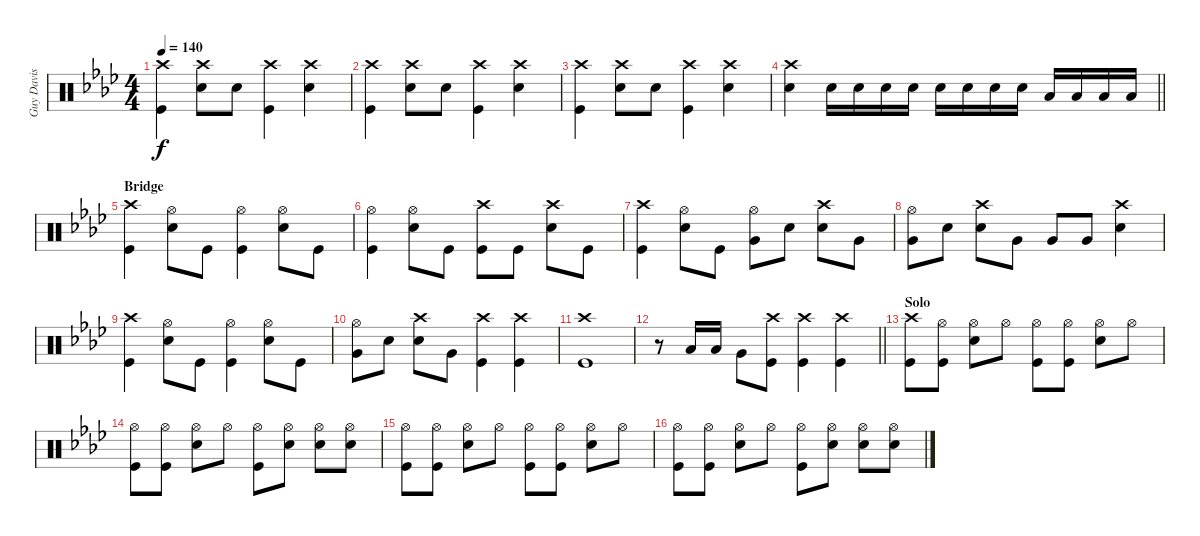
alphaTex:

\track ("Guy Davis" "Guy Davis") {instrument percussion}
\staff {score}
\articulation defaults
\ts (4 4)
\tempo 140
\clef neutral
\ks fminor
("Crash high (hit)" "Kick (hit)").4{dy f} ("Crash high (hit)" "Snare (hit) 2").8 "Snare (hit) 2".8 ("Crash high (hit)" "Kick (hit)").4 ("Crash high (hit)" "Snare (hit) 2").4 |
("Crash high (hit)" "Kick (hit)").4 ("Crash high (hit)" "Snare (hit) 2").8 "Snare (hit) 2".8 ("Crash high (hit)" "Kick (hit)").4 ("Crash high (hit)" "Snare (hit) 2").4 |
("Crash high (hit)" "Kick (hit)").4 ("Crash high (hit)" "Snare (hit) 2").8 "Snare (hit) 2".8 ("Crash high (hit)" "Kick (hit)").4 ("Crash high (hit)" "Snare (hit) 2").4 |
\barLineRight lightlight
("Crash high (hit)" "Snare (hit) 2").4 "Snare (hit) 2".16 "Snare (hit) 2".16 "Snare (hit) 2".16 "Snare (hit) 2".16 "Snare (hit) 2".16 "Snare (hit) 2".16 "Snare (hit) 2".16 "Snare (hit) 2".16 "Low Tom (hit)".16 "Low Tom (hit)".16 "Low Tom (hit)".16 "Low Tom (hit)".16 |
\section ("" "Bridge")
("Crash high (hit)" "Kick (hit)").4 ("Hi-Hat (open)" "Snare (hit) 2").8 "Kick (hit)".8 ("Hi-Hat (open)" "Kick (hit)").4 ("Hi-Hat (open)" "Snare (hit) 2").8 "Kick (hit)".8 |
("Hi-Hat (open)" "Kick (hit)").4 ("Hi-Hat (open)" "Snare (hit) 2").8 "Kick (hit)".8 ("Crash high (hit)" "Kick (hit)").8 "Kick (hit)".8 ("Crash high (hit)" "Snare (hit) 2").8 "Kick (hit)".8 |
("Crash high (hit)" "Kick (hit)").4 ("Hi-Hat (open)" "Snare (hit) 2").8 "Kick (hit)".8 ("Hi-Hat (open)" "Very Low Tom (hit)").8 "Snare (hit) 2".8 ("Crash high (hit)" "Snare (hit) 2").8 "Very Low Tom (hit)".8 |
("Hi-Hat (open)" "Very Low Tom (hit)").8 "Snare (hit) 2".8 ("Crash high (hit)" "Snare (hit) 2").8 "Very Low Tom (hit)".8 "Very Low Tom (hit)".8 "Very Low Tom (hit)".8 ("Crash high (hit)" "Snare (hit) 2").4 |
("Crash high (hit)" "Kick (hit)").4 ("Hi-Hat (open)" "Snare (hit) 2").8 "Kick (hit)".8 ("Hi-Hat (open)" "Kick (hit)").4 ("Hi-Hat (open)" "Snare (hit) 2").8 "Kick (hit)".8 |
("Hi-Hat (open)" "Very Low Tom (hit)").8 "Snare (hit) 2".8 ("Crash high (hit)" "Snare (hit) 2").8 "Very Low Tom (hit)".8 ("Crash high (hit)" "Kick (hit)").4 ("Crash high (hit)" "Kick (hit)").4 |
("Crash high (hit)" "Kick (hit)").1 |
\barLineRight lightlight
r.8 "Low Tom (hit)".16 "Low Tom (hit)".16 "Very Low Tom (hit)".8 ("Crash high (hit)" "Kick (hit)").8 ("Crash high (hit)" "Kick (hit)").4 ("Crash high (hit)" "Kick (hit)").4 |
\section ("" "Solo")
("Crash high (hit)" "Kick (hit)").8 ("Hi-Hat (open)" "Kick (hit)").8 ("Hand Clap (hit)" "Hi-Hat (open)").8 "Hi-Hat (open)".8 ("Hi-Hat (open)" "Kick (hit)").8 ("Hi-Hat (open)" "Kick (hit)").8 ("Hand Clap (hit)" "Hi-Hat (open)").8 "Hi-Hat (open)".8 |
("Hi-Hat (open)" "Kick (hit)").8 ("Hi-Hat (open)" "Kick (hit)").8 ("Hand Clap (hit)" "Hi-Hat (open)").8 "Hi-Hat (open)".8 ("Hi-Hat (open)" "Kick (hit)").8 ("Hand Clap (hit)" "Hi-Hat (open)").8 ("Hand Clap (hit)" "Hi-Hat (open)").8 ("Hand Clap (hit)" "Hi-Hat (open)").8 |
("Hi-Hat (open)" "Kick (hit)").8 ("Hi-Hat (open)" "Kick (hit)").8 ("Hand Clap (hit)" "Hi-Hat (open)").8 "Hi-Hat (open)".8 ("Hi-Hat (open)" "Kick (hit)").8 ("Hi-Hat (open)" "Kick (hit)").8 ("Hand Clap (hit)" "Hi-Hat (open)").8 "Hi-Hat (open)".8 |
("Hi-Hat (open)" "Kick (hit)").8 ("Hi-Hat (open)" "Kick (hit)").8 ("Hand Clap (hit)" "Hi-Hat (open)").8 "Hi-Hat (open)".8 ("Hi-Hat (open)" "Kick (hit)").8 ("Hand Clap (hit)" "Hi-Hat (open)").8 ("Hand Clap (hit)" "Hi-Hat (open)").8 ("Hand Clap (hit)" "Hi-Hat (open)").8
